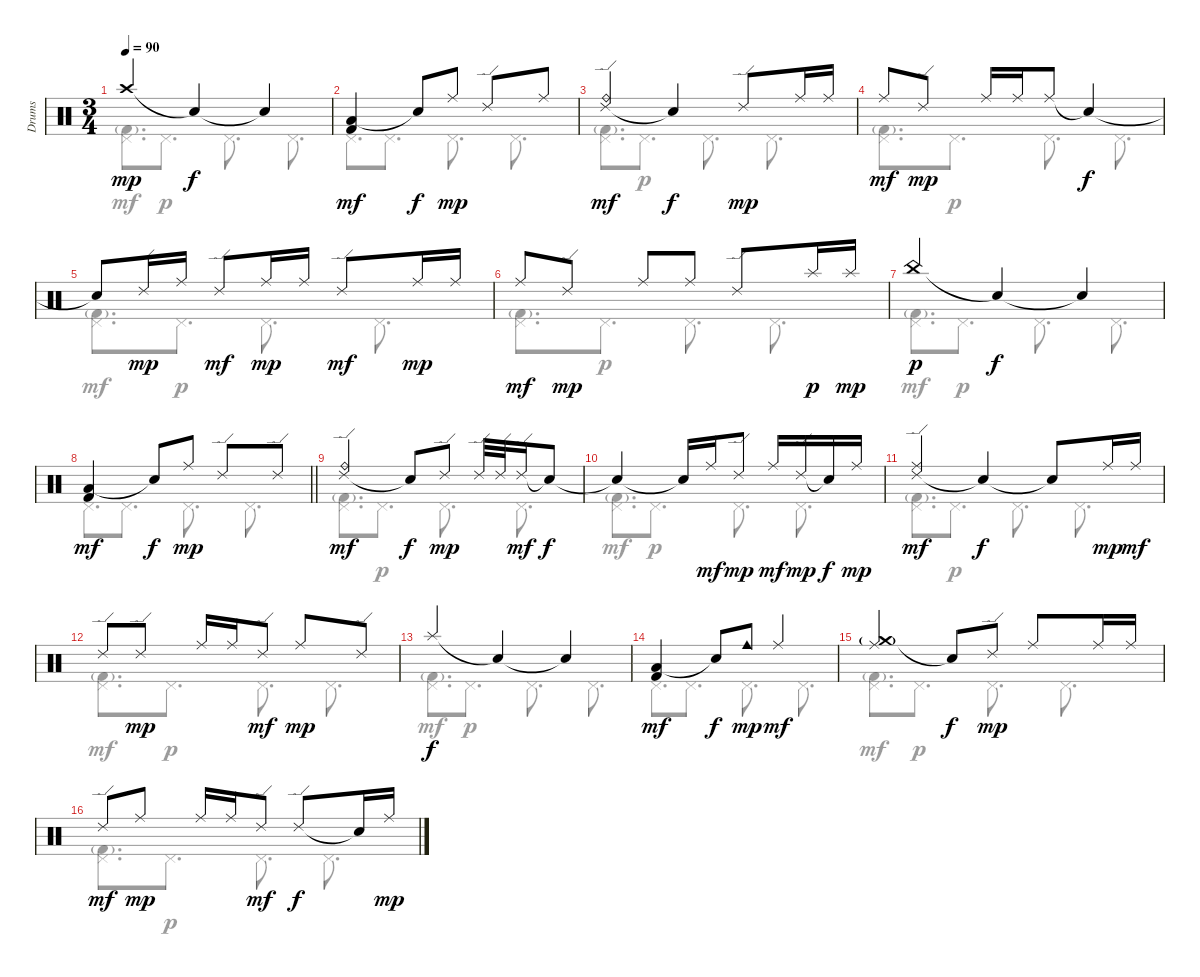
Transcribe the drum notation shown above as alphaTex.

\track ("Drums" "Drums") {instrument percussion}
\staff {score}
\articulation defaults
\voice
\ts (3 4)
\tempo 90
\clef neutral
\ks c "Crash high (hit)".4{dy mp} "Snare (hit)"{t}.4{dy f} "Snare (hit)"{t}.4
|
("Low Tom (hit)" "Kick (hit) 2").4{dy mf} "Snare (hit)"{t}.8{dy f} "Ride (middle)".8{dy mp} "Ride (edge) 2".8 "Ride (middle)".8 |
("Ride (edge) 2" "Ride (bell)").4{dy mf} "Snare (hit)"{t}.4{dy f} "Ride (edge) 2".8{dy mp} "Ride (middle)".16 "Ride (middle)".16 |
"Ride (middle)".8{dy mf} "Ride (edge) 2".8{dy mp} "Ride (middle)".16 "Ride (middle)".16 "Ride (middle)".8 "Snare (hit)"{t}.4{dy f} |
"Snare (hit)"{t}.8 "Ride (edge) 2".16{dy mp} "Ride (middle)".16 "Ride (edge) 2".8{dy mf} "Ride (middle)".16{dy mp} "Ride (middle)".16 "Ride (edge) 2".8{dy mf} "Ride (middle)".16{dy mp} "Ride (middle)".16 |
"Ride (middle)".8{dy mf} "Ride (edge) 2".8{dy mp} "Ride (middle)".8 "Ride (middle)".8 "Ride (edge) 2".8 "Splash (hit)".16{dy p} "Splash (hit)".16{dy mp} |
"China (hit)".4{dy p} "Snare (hit)"{t}.4{dy f} "Snare (hit)"{t}.4 |
\barLineRight lightlight
("Low Tom (hit)" "Kick (hit) 2").4{dy mf} "Snare (hit)"{t}.8{dy f} "Ride (middle)".8{dy mp} "Ride (edge) 2".8 "Ride (edge) 2".8 |
\section ("" "")
("Ride (edge) 2" "Ride (bell)").4{dy mf} "Snare (hit)"{t}.8{dy f} "Ride (edge) 2".8{dy mp} "Ride (edge) 2".32 "Ride (edge) 2".32 "Ride (edge) 2".16{dy mf} "Snare (hit)"{t}.8{dy f} |
"Snare (hit)"{t}.4 "Snare (hit)"{t}.16 "Ride (middle)".16{dy mf} "Ride (edge) 2".8{dy mp} "Ride (middle)".16{dy mf} "Ride (edge) 2".16{dy mp} "Snare (hit)"{t}.16{dy f} "Ride (middle)".16{dy mp} |
("Ride (edge) 2" "Ride (middle)").4{dy mf} "Snare (hit)"{t}.4{dy f} "Snare (hit)"{t}.8 "Ride (middle)".16{dy mp} "Ride (middle)".16{dy mf} |
"Ride (edge) 2".8 "Ride (edge) 2".8{dy mp} "Ride (middle)".16 "Ride (middle)".16 "Ride (edge) 2".8{dy mf} "Ride (middle)".8{dy mp} "Ride (edge) 2".8 |
"Splash (hit)".4{dy f} "Snare (hit)"{t}.4 "Snare (hit)"{t}.4 |
("Low Tom (hit)" "Kick (hit) 2").4{dy mf} "Snare (hit)"{t}.8{dy f} "Cowbell medium (hit)".8{dy mp} "Ride (middle)".4{dy mf} |
("Crash medium (hit)"{g} "Ride (middle)").4 "Snare (hit)"{t}.8{dy f} "Ride (edge) 2".8{dy mp} "Ride (middle)".8 "Ride (middle)".16 "Ride (middle)".16 |
"Ride (edge) 2".8{dy mf} "Ride (middle)".8{dy mp} "Ride (middle)".16 "Ride (middle)".16 "Ride (edge) 2".8{dy mf} "Ride (edge) 2".8{dy f} "Snare (hit)"{t}.16 "Ride (middle)".16{dy mp}
\voice
\clef neutral
\ottava regular
\simile none
\ks c
("Pedal Hi-Hat (hit)" "Kick (hit) 2"{g}).8{d dy mf} "Pedal Hi-Hat (hit)".8{d dy p} "Pedal Hi-Hat (hit)".8{d} "Pedal Hi-Hat (hit)".8{d} |
"Pedal Hi-Hat (hit)".8{d} "Pedal Hi-Hat (hit)".8{d} "Pedal Hi-Hat (hit)".8{d} "Pedal Hi-Hat (hit)".8{d} |
("Pedal Hi-Hat (hit)" "Kick (hit) 2"{g}).8{d dy mf} "Pedal Hi-Hat (hit)".8{d dy p} "Pedal Hi-Hat (hit)".8{d} "Pedal Hi-Hat (hit)".8{d} |
("Pedal Hi-Hat (hit)" "Kick (hit) 2"{g}).8{d dy mf} "Pedal Hi-Hat (hit)".8{d dy p} "Pedal Hi-Hat (hit)".8{d} "Pedal Hi-Hat (hit)".8{d} |
("Pedal Hi-Hat (hit)" "Kick (hit) 2"{g}).8{d dy mf} "Pedal Hi-Hat (hit)".8{d dy p} "Pedal Hi-Hat (hit)".8{d} "Pedal Hi-Hat (hit)".8{d} |
("Pedal Hi-Hat (hit)" "Kick (hit) 2"{g}).8{d dy mf} "Pedal Hi-Hat (hit)".8{d dy p} "Pedal Hi-Hat (hit)".8{d} "Pedal Hi-Hat (hit)".8{d} |
("Pedal Hi-Hat (hit)" "Kick (hit) 2"{g}).8{d dy mf} "Pedal Hi-Hat (hit)".8{d dy p} "Pedal Hi-Hat (hit)".8{d} "Pedal Hi-Hat (hit)".8{d} |
\barLineRight lightlight "Pedal Hi-Hat (hit)".8{d} "Pedal Hi-Hat (hit)".8{d} "Pedal Hi-Hat (hit)".8{d} "Pedal Hi-Hat (hit)".8{d}
|
("Pedal Hi-Hat (hit)" "Kick (hit) 2"{g}).8{d dy mf} "Pedal Hi-Hat (hit)".8{d dy p} "Pedal Hi-Hat (hit)".8{d} "Pedal Hi-Hat (hit)".8{d} |
("Pedal Hi-Hat (hit)" "Kick (hit) 2"{g}).8{d dy mf} "Pedal Hi-Hat (hit)".8{d dy p} "Pedal Hi-Hat (hit)".8{d} "Pedal Hi-Hat (hit)".8{d} |
("Pedal Hi-Hat (hit)" "Kick (hit) 2"{g}).8{d dy mf} "Pedal Hi-Hat (hit)".8{d dy p} "Pedal Hi-Hat (hit)".8{d} "Pedal Hi-Hat (hit)".8{d} |
("Pedal Hi-Hat (hit)" "Kick (hit) 2"{g}).8{d dy mf} "Pedal Hi-Hat (hit)".8{d dy p} "Pedal Hi-Hat (hit)".8{d} "Pedal Hi-Hat (hit)".8{d} |
("Pedal Hi-Hat (hit)" "Kick (hit) 2"{g}).8{d dy mf} "Pedal Hi-Hat (hit)".8{d dy p} "Pedal Hi-Hat (hit)".8{d} "Pedal Hi-Hat (hit)".8{d} |
"Pedal Hi-Hat (hit)".8{d} "Pedal Hi-Hat (hit)".8{d} "Pedal Hi-Hat (hit)".8{d} "Pedal Hi-Hat (hit)".8{d} |
("Pedal Hi-Hat (hit)" "Kick (hit) 2"{g}).8{d dy mf} "Pedal Hi-Hat (hit)".8{d dy p} "Pedal Hi-Hat (hit)".8{d} "Pedal Hi-Hat (hit)".8{d} |
("Pedal Hi-Hat (hit)" "Kick (hit) 2"{g}).8{d dy mf} "Pedal Hi-Hat (hit)".8{d dy p} "Pedal Hi-Hat (hit)".8{d} "Pedal Hi-Hat (hit)".8{d}
